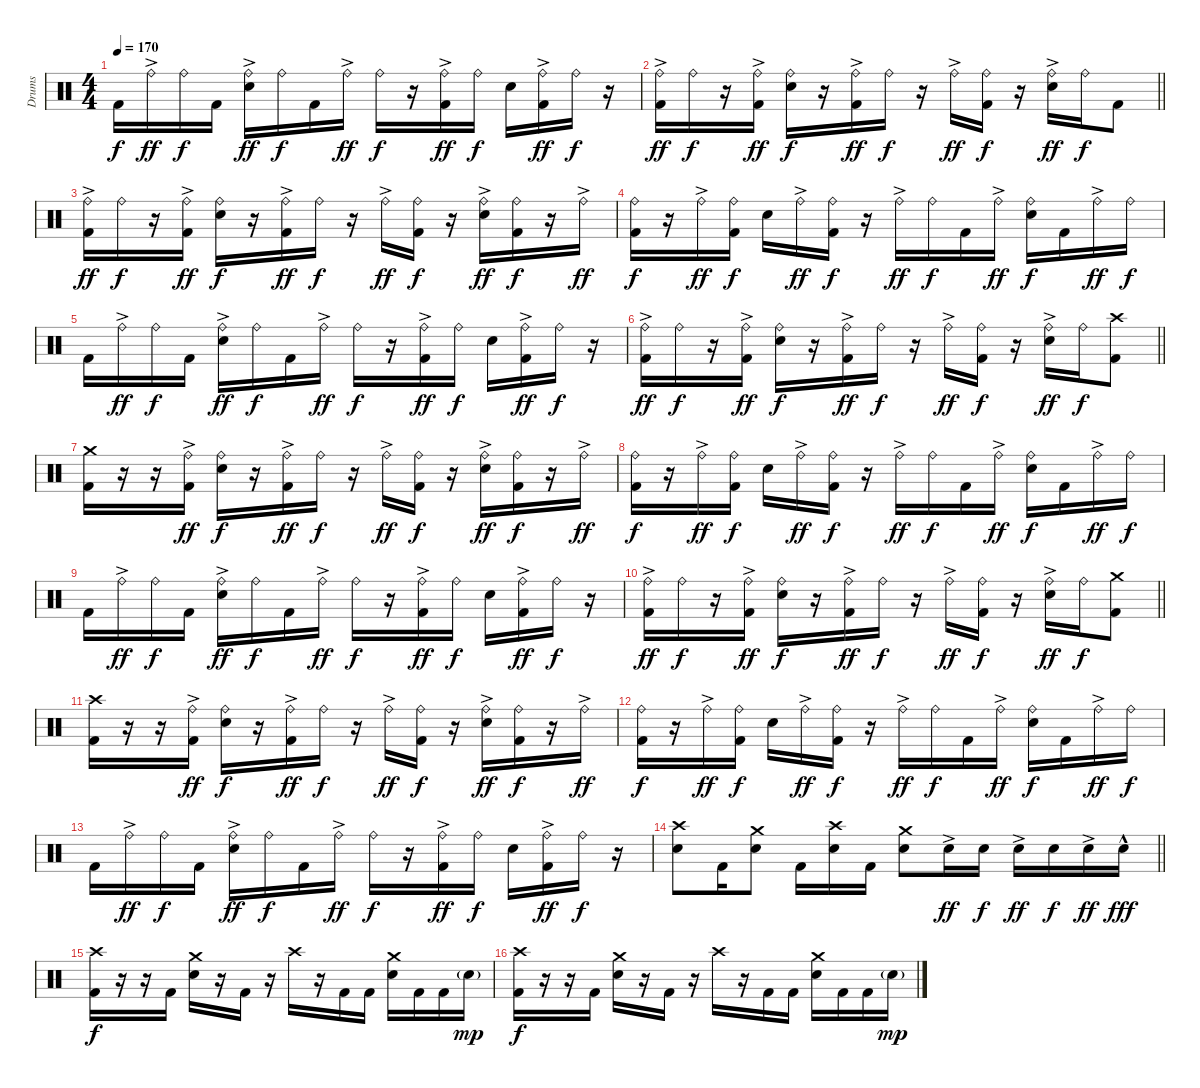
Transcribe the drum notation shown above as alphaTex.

\track ("Drums" "Drums") {instrument percussion}
\staff {score}
\articulation defaults
\ts (4 4)
\tempo 170
\clef neutral
\ks c "Kick (hit) 2".16{dy f} "Ride (bell)"{ac}.16{dy ff} "Ride (bell)".16{dy f} "Kick (hit) 2".16
("Ride (bell)"{ac} "Snare (hit) 2").16{dy ff} "Ride (bell)".16{dy f} "Kick (hit) 2".16 "Ride (bell)"{ac}.16{dy ff} "Ride (bell)".16{dy f} r.16 ("Ride (bell)"{ac} "Kick (hit) 2").16{dy ff} "Ride (bell)".16{dy f} "Snare (hit) 2".16 ("Ride (bell)"{ac} "Kick (hit) 2").16{dy ff} "Ride (bell)".16{dy f} r.16 |
\barLineRight lightlight
("Ride (bell)"{ac} "Kick (hit) 2").16{dy ff} "Ride (bell)".16{dy f} r.16 ("Ride (bell)"{ac} "Kick (hit) 2").16{dy ff} ("Ride (bell)" "Snare (hit) 2").16{dy f} r.16 ("Ride (bell)"{ac} "Kick (hit) 2").16{dy ff} "Ride (bell)".16{dy f} r.16 "Ride (bell)"{ac}.16{dy ff} ("Ride (bell)" "Kick (hit) 2").16{dy f} r.16 ("Ride (bell)"{ac} "Snare (hit) 2").16{dy ff} "Ride (bell)".16{dy f} "Kick (hit) 2".8 |
\section ("" "")
("Ride (bell)"{ac} "Kick (hit) 2").16{dy ff} "Ride (bell)".16{dy f} r.16 ("Ride (bell)"{ac} "Kick (hit) 2").16{dy ff} ("Ride (bell)" "Snare (hit) 2").16{dy f} r.16 ("Ride (bell)"{ac} "Kick (hit) 2").16{dy ff} "Ride (bell)".16{dy f} r.16 "Ride (bell)"{ac}.16{dy ff} ("Ride (bell)" "Kick (hit) 2").16{dy f} r.16 ("Ride (bell)"{ac} "Snare (hit) 2").16{dy ff} ("Ride (bell)" "Kick (hit) 2").16{dy f} r.16 "Ride (bell)"{ac}.16{dy ff} |
("Ride (bell)" "Kick (hit) 2").16{dy f} r.16 "Ride (bell)"{ac}.16{dy ff} ("Ride (bell)" "Kick (hit) 2").16{dy f} "Snare (hit) 2".16 "Ride (bell)"{ac}.16{dy ff} ("Ride (bell)" "Kick (hit) 2").16{dy f} r.16 "Ride (bell)"{ac}.16{dy ff} "Ride (bell)".16{dy f} "Kick (hit) 2".16 "Ride (bell)"{ac}.16{dy ff} ("Ride (bell)" "Snare (hit) 2").16{dy f} "Kick (hit) 2".16 "Ride (bell)"{ac}.16{dy ff} "Ride (bell)".16{dy f} |
"Kick (hit) 2".16 "Ride (bell)"{ac}.16{dy ff} "Ride (bell)".16{dy f} "Kick (hit) 2".16 ("Ride (bell)"{ac} "Snare (hit) 2").16{dy ff} "Ride (bell)".16{dy f} "Kick (hit) 2".16 "Ride (bell)"{ac}.16{dy ff} "Ride (bell)".16{dy f} r.16 ("Ride (bell)"{ac} "Kick (hit) 2").16{dy ff} "Ride (bell)".16{dy f} "Snare (hit) 2".16 ("Ride (bell)"{ac} "Kick (hit) 2").16{dy ff} "Ride (bell)".16{dy f} r.16 |
\barLineRight lightlight
("Ride (bell)"{ac} "Kick (hit) 2").16{dy ff} "Ride (bell)".16{dy f} r.16 ("Ride (bell)"{ac} "Kick (hit) 2").16{dy ff} ("Ride (bell)" "Snare (hit) 2").16{dy f} r.16 ("Ride (bell)"{ac} "Kick (hit) 2").16{dy ff} "Ride (bell)".16{dy f} r.16 "Ride (bell)"{ac}.16{dy ff} ("Ride (bell)" "Kick (hit) 2").16{dy f} r.16 ("Ride (bell)"{ac} "Snare (hit) 2").16{dy ff} "Ride (bell)".16{dy f} ("Crash high (hit)" "Kick (hit) 2").8 |
\section ("" "")
("Crash medium (hit)" "Kick (hit) 2").16 r.16 r.16 ("Ride (bell)"{ac} "Kick (hit) 2").16{dy ff} ("Ride (bell)" "Snare (hit) 2").16{dy f} r.16 ("Ride (bell)"{ac} "Kick (hit) 2").16{dy ff} "Ride (bell)".16{dy f} r.16 "Ride (bell)"{ac}.16{dy ff} ("Ride (bell)" "Kick (hit) 2").16{dy f} r.16 ("Ride (bell)"{ac} "Snare (hit) 2").16{dy ff} ("Ride (bell)" "Kick (hit) 2").16{dy f} r.16 "Ride (bell)"{ac}.16{dy ff} |
("Ride (bell)" "Kick (hit) 2").16{dy f} r.16 "Ride (bell)"{ac}.16{dy ff} ("Ride (bell)" "Kick (hit) 2").16{dy f} "Snare (hit) 2".16 "Ride (bell)"{ac}.16{dy ff} ("Ride (bell)" "Kick (hit) 2").16{dy f} r.16 "Ride (bell)"{ac}.16{dy ff} "Ride (bell)".16{dy f} "Kick (hit) 2".16 "Ride (bell)"{ac}.16{dy ff} ("Ride (bell)" "Snare (hit) 2").16{dy f} "Kick (hit) 2".16 "Ride (bell)"{ac}.16{dy ff} "Ride (bell)".16{dy f} |
"Kick (hit) 2".16 "Ride (bell)"{ac}.16{dy ff} "Ride (bell)".16{dy f} "Kick (hit) 2".16 ("Ride (bell)"{ac} "Snare (hit) 2").16{dy ff} "Ride (bell)".16{dy f} "Kick (hit) 2".16 "Ride (bell)"{ac}.16{dy ff} "Ride (bell)".16{dy f} r.16 ("Ride (bell)"{ac} "Kick (hit) 2").16{dy ff} "Ride (bell)".16{dy f} "Snare (hit) 2".16 ("Ride (bell)"{ac} "Kick (hit) 2").16{dy ff} "Ride (bell)".16{dy f} r.16 |
\barLineRight lightlight
("Ride (bell)"{ac} "Kick (hit) 2").16{dy ff} "Ride (bell)".16{dy f} r.16 ("Ride (bell)"{ac} "Kick (hit) 2").16{dy ff} ("Ride (bell)" "Snare (hit) 2").16{dy f} r.16 ("Ride (bell)"{ac} "Kick (hit) 2").16{dy ff} "Ride (bell)".16{dy f} r.16 "Ride (bell)"{ac}.16{dy ff} ("Ride (bell)" "Kick (hit) 2").16{dy f} r.16 ("Ride (bell)"{ac} "Snare (hit) 2").16{dy ff} "Ride (bell)".16{dy f} ("Crash medium (hit)" "Kick (hit) 2").8 |
\section ("" "")
("Crash high (hit)" "Kick (hit) 2").16 r.16 r.16 ("Ride (bell)"{ac} "Kick (hit) 2").16{dy ff} ("Ride (bell)" "Snare (hit) 2").16{dy f} r.16 ("Ride (bell)"{ac} "Kick (hit) 2").16{dy ff} "Ride (bell)".16{dy f} r.16 "Ride (bell)"{ac}.16{dy ff} ("Ride (bell)" "Kick (hit) 2").16{dy f} r.16 ("Ride (bell)"{ac} "Snare (hit) 2").16{dy ff} ("Ride (bell)" "Kick (hit) 2").16{dy f} r.16 "Ride (bell)"{ac}.16{dy ff} |
("Ride (bell)" "Kick (hit) 2").16{dy f} r.16 "Ride (bell)"{ac}.16{dy ff} ("Ride (bell)" "Kick (hit) 2").16{dy f} "Snare (hit) 2".16 "Ride (bell)"{ac}.16{dy ff} ("Ride (bell)" "Kick (hit) 2").16{dy f} r.16 "Ride (bell)"{ac}.16{dy ff} "Ride (bell)".16{dy f} "Kick (hit) 2".16 "Ride (bell)"{ac}.16{dy ff} ("Ride (bell)" "Snare (hit) 2").16{dy f} "Kick (hit) 2".16 "Ride (bell)"{ac}.16{dy ff} "Ride (bell)".16{dy f} |
"Kick (hit) 2".16 "Ride (bell)"{ac}.16{dy ff} "Ride (bell)".16{dy f} "Kick (hit) 2".16 ("Ride (bell)"{ac} "Snare (hit) 2").16{dy ff} "Ride (bell)".16{dy f} "Kick (hit) 2".16 "Ride (bell)"{ac}.16{dy ff} "Ride (bell)".16{dy f} r.16 ("Ride (bell)"{ac} "Kick (hit) 2").16{dy ff} "Ride (bell)".16{dy f} "Snare (hit) 2".16 ("Ride (bell)"{ac} "Kick (hit) 2").16{dy ff} "Ride (bell)".16{dy f} r.16 |
\barLineRight lightlight
("Crash high (hit)" "Snare (hit) 2").8 "Kick (hit) 2".16 ("Crash medium (hit)" "Snare (hit) 2").8 "Kick (hit) 2".16 ("Crash high (hit)" "Snare (hit) 2").16 "Kick (hit) 2".16 ("Crash medium (hit)" "Snare (hit) 2").8 "Snare (hit) 2"{ac}.16{dy ff} "Snare (hit) 2".16{dy f} "Snare (hit) 2"{ac}.16{dy ff} "Snare (hit) 2".16{dy f} "Snare (hit) 2"{ac}.16{dy ff} "Snare (hit) 2"{hac}.16{dy fff} |
\section ("" "")
("Crash high (hit)" "Kick (hit) 2").16{dy f} r.16 r.16 "Kick (hit) 2".16 ("Crash medium (hit)" "Snare (hit) 2").16 r.16 "Kick (hit) 2".16 r.16 "Crash high (hit)".16 r.16 "Kick (hit) 2".16 "Kick (hit) 2".16 ("Crash medium (hit)" "Snare (hit) 2").16 "Kick (hit) 2".16 "Kick (hit) 2".16 "Snare (hit) 2"{g}.16{dy mp} |
("Crash high (hit)" "Kick (hit) 2").16{dy f} r.16 r.16 "Kick (hit) 2".16 ("Crash medium (hit)" "Snare (hit) 2").16 r.16 "Kick (hit) 2".16 r.16 "Crash high (hit)".16 r.16 "Kick (hit) 2".16 "Kick (hit) 2".16 ("Crash medium (hit)" "Snare (hit) 2").16 "Kick (hit) 2".16 "Kick (hit) 2".16 "Snare (hit) 2"{g}.16{dy mp}
